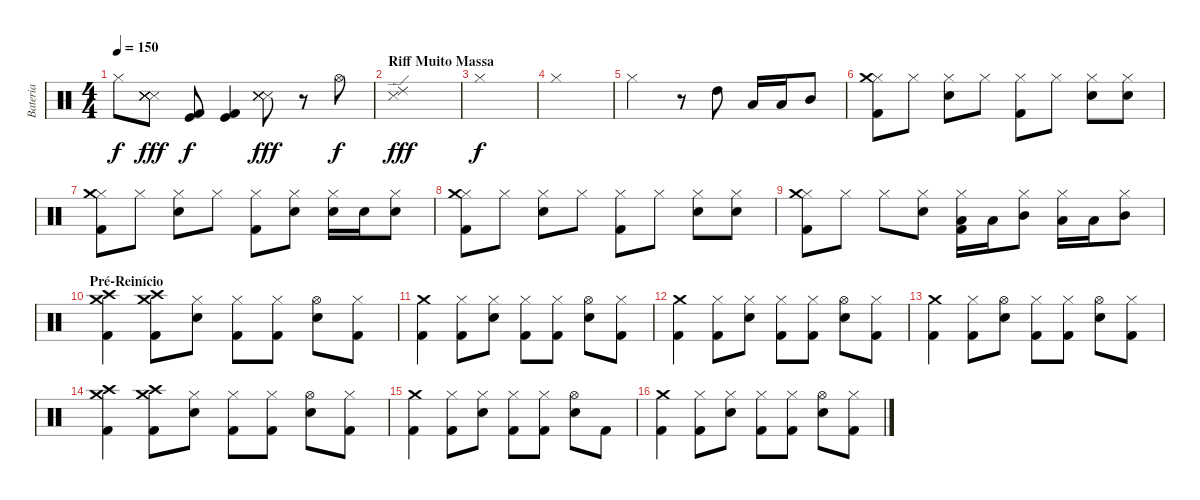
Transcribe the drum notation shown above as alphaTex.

\track ("Bateria" "Bateria") {instrument percussion}
\staff {score}
\articulation defaults
\ts (4 4)
\tempo 150
\clef neutral
\ks c "Hi-Hat (closed)".8{dy f}
("Snare (side stick) 3" "Snare (side stick) 3" "Snare (side stick) 3" "Snare (side stick) 3" "Snare (side stick) 3" "Snare (side stick) 3").8{dy fff} ("Kick (hit) 2" "Kick (hit)").8{dy f} ("Kick (hit) 2" "Kick (hit)").4 ("Snare (side stick) 3" "Snare (side stick) 3" "Snare (side stick) 3" "Snare (side stick) 3" "Snare (side stick) 3" "Snare (side stick) 3").8{dy fff} r.8 "Hi-Hat (open)".8{dy f} |
\section ("" "Riff Muito Massa")
("Snare (side stick) 3" "Ride (edge) 2").1{dy fff} |
"Hi-Hat (closed)".1{dy f} |
"Hi-Hat (closed)".1 |
"Hi-Hat (closed)".2 r.8 "High Tom (hit)".8 "Low Tom (hit)".16 "Low Tom (hit)".16 "Mid Tom (hit)".8 |
("Kick (hit) 2" "Hi-Hat (closed)" "Crash medium (hit)").8 "Hi-Hat (closed)".8 ("Electric Snare (hit)" "Hi-Hat (closed)").8 "Hi-Hat (closed)".8 ("Kick (hit) 2" "Hi-Hat (closed)").8 "Hi-Hat (closed)".8 ("Electric Snare (hit)" "Hi-Hat (closed)").8 ("Electric Snare (hit)" "Hi-Hat (closed)").8 |
("Kick (hit) 2" "Hi-Hat (closed)" "Crash medium (hit)").8 "Hi-Hat (closed)".8 ("Electric Snare (hit)" "Hi-Hat (closed)").8 "Hi-Hat (closed)".8 ("Kick (hit) 2" "Hi-Hat (closed)").8 ("Electric Snare (hit)" "Hi-Hat (closed)").8 ("Electric Snare (hit)" "Hi-Hat (closed)").16 "Electric Snare (hit)".16 ("Electric Snare (hit)" "Hi-Hat (closed)").8 |
("Kick (hit) 2" "Hi-Hat (closed)" "Crash medium (hit)").8 "Hi-Hat (closed)".8 ("Electric Snare (hit)" "Hi-Hat (closed)").8 "Hi-Hat (closed)".8 ("Kick (hit) 2" "Hi-Hat (closed)").8 "Hi-Hat (closed)".8 ("Electric Snare (hit)" "Hi-Hat (closed)").8 ("Electric Snare (hit)" "Hi-Hat (closed)").8 |
("Kick (hit) 2" "Hi-Hat (closed)" "Crash medium (hit)").8 "Hi-Hat (closed)".8 "Hi-Hat (closed)".8 ("Electric Snare (hit)" "Hi-Hat (closed)").8 ("Kick (hit) 2" "Low Tom (hit)" "Hi-Hat (closed)").16 "Low Tom (hit)".16 ("Mid Tom (hit)" "Hi-Hat (closed)").8 ("Low Tom (hit)" "Hi-Hat (closed)").16 "Low Tom (hit)".16 ("Mid Tom (hit)" "Hi-Hat (closed)").8 |
\section ("" "Pré-Reinício")
("Kick (hit) 2" "Crash medium (hit)" "Crash high (hit)").4 ("Kick (hit) 2" "Crash medium (hit)" "Crash high (hit)").8 ("Electric Snare (hit)" "Hi-Hat (closed)").8 ("Kick (hit) 2" "Hi-Hat (closed)").8 ("Kick (hit) 2" "Hi-Hat (closed)").8 ("Electric Snare (hit)" "Hi-Hat (open)").8 ("Kick (hit) 2" "Hi-Hat (closed)").8 |
("Kick (hit) 2" "Crash medium (hit)").4 ("Kick (hit) 2" "Hi-Hat (closed)").8 ("Electric Snare (hit)" "Hi-Hat (closed)").8 ("Kick (hit) 2" "Hi-Hat (closed)").8 ("Kick (hit) 2" "Hi-Hat (closed)").8 ("Electric Snare (hit)" "Hi-Hat (open)").8 ("Kick (hit) 2" "Hi-Hat (closed)").8 |
("Kick (hit) 2" "Crash medium (hit)").4 ("Kick (hit) 2" "Hi-Hat (closed)").8 ("Electric Snare (hit)" "Hi-Hat (closed)").8 ("Kick (hit) 2" "Hi-Hat (closed)").8 ("Kick (hit) 2" "Hi-Hat (closed)").8 ("Electric Snare (hit)" "Hi-Hat (open)").8 ("Kick (hit) 2" "Hi-Hat (closed)").8 |
("Kick (hit) 2" "Crash medium (hit)").4 ("Kick (hit) 2" "Hi-Hat (closed)").8 ("Electric Snare (hit)" "Hi-Hat (open)").8 ("Kick (hit) 2" "Hi-Hat (closed)").8 ("Kick (hit) 2" "Hi-Hat (closed)").8 ("Electric Snare (hit)" "Hi-Hat (open)").8 ("Kick (hit) 2" "Hi-Hat (closed)").8 |
("Kick (hit) 2" "Crash medium (hit)" "Crash high (hit)").4 ("Kick (hit) 2" "Crash medium (hit)" "Crash high (hit)").8 ("Electric Snare (hit)" "Hi-Hat (closed)").8 ("Kick (hit) 2" "Hi-Hat (closed)").8 ("Kick (hit) 2" "Hi-Hat (closed)").8 ("Electric Snare (hit)" "Hi-Hat (open)").8 ("Kick (hit) 2" "Hi-Hat (closed)").8 |
("Kick (hit) 2" "Crash medium (hit)").4 ("Kick (hit) 2" "Hi-Hat (closed)").8 ("Electric Snare (hit)" "Hi-Hat (closed)").8 ("Kick (hit) 2" "Hi-Hat (closed)").8 ("Kick (hit) 2" "Hi-Hat (closed)").8 ("Electric Snare (hit)" "Hi-Hat (open)").8 "Kick (hit) 2".8 |
("Kick (hit) 2" "Crash medium (hit)").4 ("Kick (hit) 2" "Hi-Hat (closed)").8 ("Electric Snare (hit)" "Hi-Hat (closed)").8 ("Kick (hit) 2" "Hi-Hat (closed)").8 ("Kick (hit) 2" "Hi-Hat (closed)").8 ("Electric Snare (hit)" "Hi-Hat (open)").8 ("Kick (hit) 2" "Hi-Hat (closed)").8
